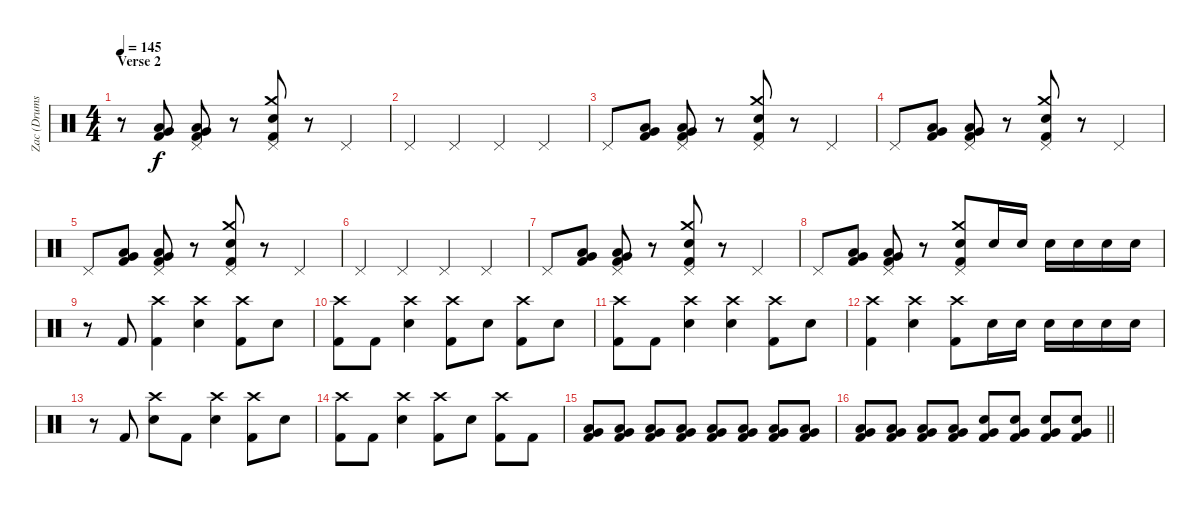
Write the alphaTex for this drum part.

\track ("Zac (Drums)" "Zac (Drums") {instrument percussion}
\staff {score}
\articulation defaults
\ts (4 4)
\section ("" "Verse 2")
\tempo 145
\clef neutral
\ks c
r.8{dy f} ("Very Low Tom (hit)" "Low Tom (hit)" "Kick (hit) 2").8 ("Pedal Hi-Hat (hit)" "Very Low Tom (hit)" "Low Tom (hit)" "Kick (hit) 2").8 r.8 ("Crash medium (hit)" "Pedal Hi-Hat (hit)" "Electric Snare (hit)" "Kick (hit) 2").8 r.8 "Pedal Hi-Hat (hit)".4 |
"Pedal Hi-Hat (hit)".4 "Pedal Hi-Hat (hit)".4 "Pedal Hi-Hat (hit)".4 "Pedal Hi-Hat (hit)".4 |
"Pedal Hi-Hat (hit)".8 ("Very Low Tom (hit)" "Low Tom (hit)" "Kick (hit) 2").8 ("Pedal Hi-Hat (hit)" "Very Low Tom (hit)" "Low Tom (hit)" "Kick (hit) 2").8 r.8 ("Crash medium (hit)" "Pedal Hi-Hat (hit)" "Electric Snare (hit)" "Kick (hit) 2").8 r.8 "Pedal Hi-Hat (hit)".4 |
"Pedal Hi-Hat (hit)".8 ("Very Low Tom (hit)" "Low Tom (hit)" "Kick (hit) 2").8 ("Pedal Hi-Hat (hit)" "Very Low Tom (hit)" "Low Tom (hit)" "Kick (hit) 2").8 r.8 ("Crash medium (hit)" "Pedal Hi-Hat (hit)" "Electric Snare (hit)" "Kick (hit) 2").8 r.8 "Pedal Hi-Hat (hit)".4 |
"Pedal Hi-Hat (hit)".8 ("Very Low Tom (hit)" "Low Tom (hit)" "Kick (hit) 2").8 ("Pedal Hi-Hat (hit)" "Very Low Tom (hit)" "Low Tom (hit)" "Kick (hit) 2").8 r.8 ("Crash medium (hit)" "Pedal Hi-Hat (hit)" "Electric Snare (hit)" "Kick (hit) 2").8 r.8 "Pedal Hi-Hat (hit)".4 |
"Pedal Hi-Hat (hit)".4 "Pedal Hi-Hat (hit)".4 "Pedal Hi-Hat (hit)".4 "Pedal Hi-Hat (hit)".4 |
"Pedal Hi-Hat (hit)".8 ("Very Low Tom (hit)" "Low Tom (hit)" "Kick (hit) 2").8 ("Pedal Hi-Hat (hit)" "Very Low Tom (hit)" "Low Tom (hit)" "Kick (hit) 2").8 r.8 ("Crash medium (hit)" "Pedal Hi-Hat (hit)" "Electric Snare (hit)" "Kick (hit) 2").8 r.8 "Pedal Hi-Hat (hit)".4 |
"Pedal Hi-Hat (hit)".8 ("Very Low Tom (hit)" "Low Tom (hit)" "Kick (hit) 2").8 ("Pedal Hi-Hat (hit)" "Very Low Tom (hit)" "Low Tom (hit)" "Kick (hit) 2").8 r.8 ("Crash medium (hit)" "Pedal Hi-Hat (hit)" "Electric Snare (hit)" "Kick (hit) 2").8 "Electric Snare (hit)".16 "Electric Snare (hit)".16 "Electric Snare (hit)".16 "Electric Snare (hit)".16 "Electric Snare (hit)".16 "Electric Snare (hit)".16 |
r.8 "Kick (hit) 2".8 ("Crash high (hit)" "Kick (hit) 2").4 ("Crash high (hit)" "Electric Snare (hit)").4 ("Crash high (hit)" "Kick (hit) 2").8 "Electric Snare (hit)".8 |
("Crash high (hit)" "Kick (hit) 2").8 "Kick (hit) 2".8 ("Crash high (hit)" "Electric Snare (hit)").4 ("Crash high (hit)" "Kick (hit) 2").8 "Electric Snare (hit)".8 ("Crash high (hit)" "Kick (hit) 2").8 "Electric Snare (hit)".8 |
("Crash high (hit)" "Kick (hit) 2").8 "Kick (hit) 2".8 ("Crash high (hit)" "Electric Snare (hit)").4 ("Crash high (hit)" "Electric Snare (hit)").4 ("Crash high (hit)" "Kick (hit) 2").8 "Electric Snare (hit)".8 |
("Crash high (hit)" "Kick (hit) 2").4 ("Crash high (hit)" "Electric Snare (hit)").4 ("Crash high (hit)" "Kick (hit) 2").8 "Electric Snare (hit)".16 "Electric Snare (hit)".16 "Electric Snare (hit)".16 "Electric Snare (hit)".16 "Electric Snare (hit)".16 "Electric Snare (hit)".16 |
r.8 "Kick (hit) 2".8 ("Crash high (hit)" "Electric Snare (hit)").8 "Kick (hit) 2".8 ("Crash high (hit)" "Electric Snare (hit)").4 ("Crash high (hit)" "Kick (hit) 2").8 "Electric Snare (hit)".8 |
("Crash high (hit)" "Kick (hit) 2").8 "Kick (hit) 2".8 ("Crash high (hit)" "Electric Snare (hit)").4 ("Crash high (hit)" "Kick (hit) 2").8 "Electric Snare (hit)".8 ("Crash high (hit)" "Kick (hit) 2").8 "Kick (hit) 2".8 |
("Very Low Tom (hit)" "Low Tom (hit)" "Kick (hit) 2").8 ("Very Low Tom (hit)" "Low Tom (hit)" "Kick (hit) 2").8 ("Very Low Tom (hit)" "Low Tom (hit)" "Kick (hit) 2").8 ("Very Low Tom (hit)" "Low Tom (hit)" "Kick (hit) 2").8 ("Very Low Tom (hit)" "Low Tom (hit)" "Kick (hit) 2").8 ("Very Low Tom (hit)" "Low Tom (hit)" "Kick (hit) 2").8 ("Very Low Tom (hit)" "Low Tom (hit)" "Kick (hit) 2").8 ("Very Low Tom (hit)" "Low Tom (hit)" "Kick (hit) 2").8 |
\barLineRight lightlight
("Very Low Tom (hit)" "Low Tom (hit)" "Kick (hit) 2").8 ("Very Low Tom (hit)" "Low Tom (hit)" "Kick (hit) 2").8 ("Very Low Tom (hit)" "Low Tom (hit)" "Kick (hit) 2").8 ("Very Low Tom (hit)" "Low Tom (hit)" "Kick (hit) 2").8 ("Very Low Tom (hit)" "Electric Snare (hit)" "Kick (hit) 2").8 ("Very Low Tom (hit)" "Electric Snare (hit)" "Kick (hit) 2").8 ("Very Low Tom (hit)" "Electric Snare (hit)" "Kick (hit) 2").8 ("Very Low Tom (hit)" "Electric Snare (hit)" "Kick (hit) 2").8
